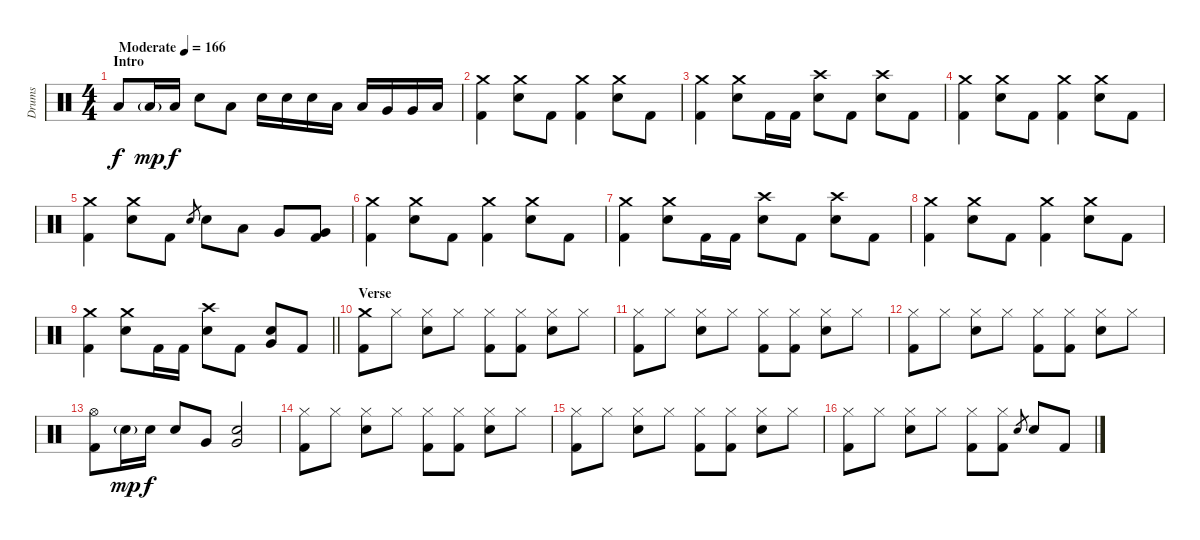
\track ("Drums" "Drums") {instrument percussion}
\staff {score}
\articulation defaults
\ts (4 4)
\section ("" "Intro")
\tempo (166 "Moderate")
\clef neutral
\ks c "Low Floor Tom (hit)".8{dy f} "Low Tom (hit)"{g}.16{dy mp} "Low Tom (hit)".16{dy f} "Electric Snare (hit)".8 "Low Floor Tom (hit)".8 "Electric Snare (hit)".16 "Electric Snare (hit)".16 "Electric Snare (hit)".16 "Low Tom (hit)".16 "Low Tom (hit)".16 "Very Low Tom (hit)".16 "Very Low Tom (hit)".16 "Low Floor Tom (hit)".16
|
("Crash medium (hit)" "Kick (hit) 2").4 ("Crash medium (hit)" "Electric Snare (hit)").8 "Kick (hit) 2".8 ("Crash medium (hit)" "Kick (hit) 2").4 ("Crash medium (hit)" "Electric Snare (hit)").8 "Kick (hit) 2".8 |
("Crash medium (hit)" "Kick (hit) 2").4 ("Crash medium (hit)" "Electric Snare (hit)").8 "Kick (hit) 2".16 "Kick (hit) 2".16 ("Crash high (hit)" "Electric Snare (hit)").8 "Kick (hit) 2".8 ("Crash high (hit)" "Electric Snare (hit)").8 "Kick (hit) 2".8 |
("Crash medium (hit)" "Kick (hit) 2").4 ("Crash medium (hit)" "Electric Snare (hit)").8 "Kick (hit) 2".8 ("Crash medium (hit)" "Kick (hit) 2").4 ("Crash medium (hit)" "Electric Snare (hit)").8 "Kick (hit) 2".8 |
("Crash medium (hit)" "Kick (hit) 2").4 ("Crash medium (hit)" "Electric Snare (hit)").8 "Kick (hit) 2".8 "Electric Snare (hit)".8{gr} "Electric Snare (hit)".8 "Low Tom (hit)".8 "Very Low Tom (hit)".8 ("Very Low Tom (hit)" "Kick (hit) 2").8 |
("Crash medium (hit)" "Kick (hit) 2").4{volume 12} ("Crash medium (hit)" "Electric Snare (hit)").8 "Kick (hit) 2".8 ("Crash medium (hit)" "Kick (hit) 2").4 ("Crash medium (hit)" "Electric Snare (hit)").8 "Kick (hit) 2".8 |
("Crash medium (hit)" "Kick (hit) 2").4 ("Crash medium (hit)" "Electric Snare (hit)").8 "Kick (hit) 2".16 "Kick (hit) 2".16 ("Crash high (hit)" "Electric Snare (hit)").8 "Kick (hit) 2".8 ("Crash high (hit)" "Electric Snare (hit)").8 "Kick (hit) 2".8 |
("Crash medium (hit)" "Kick (hit) 2").4 ("Crash medium (hit)" "Electric Snare (hit)").8 "Kick (hit) 2".8 ("Crash medium (hit)" "Kick (hit) 2").4 ("Crash medium (hit)" "Electric Snare (hit)").8 "Kick (hit) 2".8 |
\barLineRight lightlight
("Crash medium (hit)" "Kick (hit) 2").4 ("Crash medium (hit)" "Electric Snare (hit)").8 "Kick (hit) 2".16 "Kick (hit) 2".16 ("Crash high (hit)" "Electric Snare (hit)").8 "Kick (hit) 2".8 ("Very Low Tom (hit)" "Electric Snare (hit)").8 "Kick (hit) 2".8 |
\section ("" "Verse")
("Crash medium (hit)" "Kick (hit) 2").8 "Hi-Hat (closed)".8 ("Hi-Hat (closed)" "Electric Snare (hit)").8 "Hi-Hat (closed)".8 ("Hi-Hat (closed)" "Kick (hit) 2").8 ("Hi-Hat (closed)" "Kick (hit) 2").8 ("Hi-Hat (closed)" "Electric Snare (hit)").8 "Hi-Hat (closed)".8 |
("Hi-Hat (closed)" "Kick (hit) 2").8 "Hi-Hat (closed)".8 ("Hi-Hat (closed)" "Electric Snare (hit)").8 "Hi-Hat (closed)".8 ("Hi-Hat (closed)" "Kick (hit) 2").8 ("Hi-Hat (closed)" "Kick (hit) 2").8 ("Hi-Hat (closed)" "Electric Snare (hit)").8 "Hi-Hat (closed)".8 |
("Hi-Hat (closed)" "Kick (hit) 2").8 "Hi-Hat (closed)".8 ("Hi-Hat (closed)" "Electric Snare (hit)").8 "Hi-Hat (closed)".8 ("Hi-Hat (closed)" "Kick (hit) 2").8 ("Hi-Hat (closed)" "Kick (hit) 2").8 ("Hi-Hat (closed)" "Electric Snare (hit)").8 "Hi-Hat (closed)".8 |
("Hi-Hat (open)" "Kick (hit) 2").8 "Electric Snare (hit)"{g}.16{dy mp} "Electric Snare (hit)".16{dy f} "Electric Snare (hit)".8 "Very Low Tom (hit)".8 ("Electric Snare (hit)" "Very Low Tom (hit)").2 |
("Hi-Hat (closed)" "Kick (hit) 2").8 "Hi-Hat (closed)".8 ("Hi-Hat (closed)" "Electric Snare (hit)").8 "Hi-Hat (closed)".8 ("Hi-Hat (closed)" "Kick (hit) 2").8 ("Hi-Hat (closed)" "Kick (hit) 2").8 ("Hi-Hat (closed)" "Electric Snare (hit)").8 "Hi-Hat (closed)".8 |
("Hi-Hat (closed)" "Kick (hit) 2").8 "Hi-Hat (closed)".8 ("Hi-Hat (closed)" "Electric Snare (hit)").8 "Hi-Hat (closed)".8 ("Hi-Hat (closed)" "Kick (hit) 2").8 ("Hi-Hat (closed)" "Kick (hit) 2").8 ("Hi-Hat (closed)" "Electric Snare (hit)").8 "Hi-Hat (closed)".8 |
("Hi-Hat (closed)" "Kick (hit) 2").8 "Hi-Hat (closed)".8 ("Hi-Hat (closed)" "Electric Snare (hit)").8 "Hi-Hat (closed)".8 ("Hi-Hat (closed)" "Kick (hit) 2").8 ("Hi-Hat (closed)" "Kick (hit) 2").8 "Electric Snare (hit)".8{gr} "Electric Snare (hit)".8 "Kick (hit) 2".8
